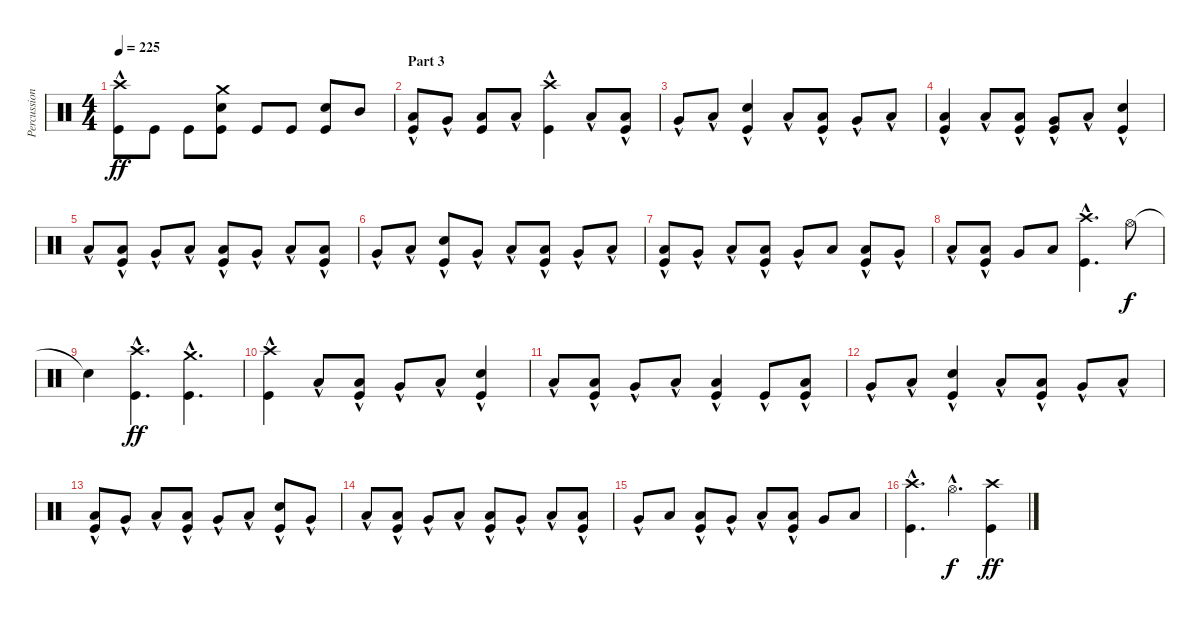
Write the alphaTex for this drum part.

\track ("Percussions" "Percussion") {instrument percussion}
\staff {score}
\articulation defaults
\ts (4 4)
\tempo 225
\clef neutral
\ks c
("Kick (hit)" "Crash high (hit)"{hac}).8{dy ff} "Kick (hit)".8 "Kick (hit)".8 ("Kick (hit)" "Electric Snare (hit)" "Crash medium (hit)").8 "Kick (hit)".8 "Kick (hit)".8 ("Kick (hit)" "Electric Snare (hit)").8 "Mid Tom (hit)".8 |
\section ("" "Part 3")
("Kick (hit)" "Low Tom (hit)"{hac}).8 "Very Low Tom (hit)"{hac}.8 ("Kick (hit)" "Low Floor Tom (hit)").8 "Low Floor Tom (hit)"{hac}.8 ("Kick (hit)"{hac} "Crash high (hit)").4 "Low Floor Tom (hit)"{hac}.8 ("Kick (hit)"{hac} "Low Tom (hit)"{hac}).8 |
"Very Low Tom (hit)"{hac}.8 "Low Floor Tom (hit)"{hac}.8 ("Kick (hit)"{hac} "Electric Snare (hit)"{hac}).4 "Low Floor Tom (hit)"{hac}.8 ("Kick (hit)"{hac} "Low Tom (hit)"{hac}).8 "Very Low Tom (hit)"{hac}.8 "Low Floor Tom (hit)"{hac}.8 |
("Kick (hit)"{hac} "Low Tom (hit)").4 "Low Floor Tom (hit)"{hac}.8 ("Kick (hit)"{hac} "Low Tom (hit)").8 ("Kick (hit)"{hac} "Very Low Tom (hit)"{hac}).8 "Low Floor Tom (hit)"{hac}.8 ("Kick (hit)"{hac} "Electric Snare (hit)"{hac}).4 |
"Low Floor Tom (hit)"{hac}.8 ("Kick (hit)"{hac} "Low Tom (hit)"{hac}).8 "Very Low Tom (hit)"{hac}.8 "Low Floor Tom (hit)"{hac}.8 ("Kick (hit)"{hac} "Low Tom (hit)").8 "Very Low Tom (hit)"{hac}.8 "Low Floor Tom (hit)"{hac}.8 ("Kick (hit)"{hac} "Low Tom (hit)"{hac}).8 |
"Very Low Tom (hit)"{hac}.8 "Low Floor Tom (hit)"{hac}.8 ("Kick (hit)"{hac} "Electric Snare (hit)"{hac}).8 "Very Low Tom (hit)"{hac}.8 "Low Floor Tom (hit)"{hac}.8 ("Kick (hit)"{hac} "Low Tom (hit)"{hac}).8 "Very Low Tom (hit)"{hac}.8 "Low Floor Tom (hit)"{hac}.8 |
("Kick (hit)"{hac} "Low Tom (hit)"{hac}).8 "Very Low Tom (hit)"{hac}.8 "Low Floor Tom (hit)"{hac}.8 ("Kick (hit)"{hac} "Low Tom (hit)"{hac}).8 "Very Low Tom (hit)"{hac}.8 "Low Floor Tom (hit)".8 ("Kick (hit)"{hac} "Low Floor Tom (hit)"{hac}).8 "Very Low Tom (hit)"{hac}.8 |
"Low Floor Tom (hit)"{hac}.8 ("Kick (hit)"{hac} "Low Tom (hit)"{hac}).8 "Very Low Tom (hit)".8 "Low Floor Tom (hit)".8 ("Kick (hit)"{hac} "Crash high (hit)"{hac}).4{d} "Hi-Hat (open)".8{dy f} |
"Snare (hit)"{t}.4 ("Kick (hit)"{hac} "Crash high (hit)"{hac}).4{d dy ff} ("Kick (hit)"{hac} "Crash medium (hit)"{hac}).4{d} |
("Kick (hit)"{hac} "Crash high (hit)").4 "Low Floor Tom (hit)"{hac}.8 ("Kick (hit)"{hac} "Low Tom (hit)"{hac}).8 "Very Low Tom (hit)"{hac}.8 "Low Floor Tom (hit)"{hac}.8 ("Kick (hit)"{hac} "Electric Snare (hit)"{hac}).4 |
"Low Floor Tom (hit)"{hac}.8 ("Kick (hit)"{hac} "Low Tom (hit)"{hac}).8 "Very Low Tom (hit)"{hac}.8 "Low Floor Tom (hit)"{hac}.8 ("Kick (hit)"{hac} "Low Tom (hit)").4 "Kick (hit)"{hac}.8 ("Kick (hit)"{hac} "Low Tom (hit)"{hac}).8 |
"Very Low Tom (hit)"{hac}.8 "Low Floor Tom (hit)"{hac}.8 ("Kick (hit)"{hac} "Electric Snare (hit)"{hac}).4 "Low Floor Tom (hit)"{hac}.8 ("Kick (hit)"{hac} "Low Tom (hit)"{hac}).8 "Very Low Tom (hit)"{hac}.8 "Low Floor Tom (hit)"{hac}.8 |
("Kick (hit)"{hac} "Low Tom (hit)"{hac}).8 "Very Low Tom (hit)"{hac}.8 "Low Floor Tom (hit)"{hac}.8 ("Kick (hit)"{hac} "Low Tom (hit)"{hac}).8 "Very Low Tom (hit)"{hac}.8 "Low Floor Tom (hit)"{hac}.8 ("Kick (hit)"{hac} "Electric Snare (hit)"{hac}).8 "Very Low Tom (hit)"{hac}.8 |
"Low Floor Tom (hit)"{hac}.8 ("Kick (hit)"{hac} "Low Tom (hit)"{hac}).8 "Very Low Tom (hit)"{hac}.8 "Low Floor Tom (hit)"{hac}.8 ("Kick (hit)"{hac} "Low Tom (hit)"{hac}).8 "Very Low Tom (hit)"{hac}.8 "Low Floor Tom (hit)"{hac}.8 ("Kick (hit)"{hac} "Low Tom (hit)"{hac}).8 |
"Very Low Tom (hit)"{hac}.8 "Low Floor Tom (hit)".8 ("Kick (hit)"{hac} "Low Floor Tom (hit)"{hac}).8 "Very Low Tom (hit)"{hac}.8 "Low Floor Tom (hit)"{hac}.8 ("Kick (hit)"{hac} "Low Tom (hit)"{hac}).8 "Very Low Tom (hit)".8 "Low Floor Tom (hit)".8 |
("Kick (hit)"{hac} "Crash high (hit)"{hac}).4{d} "Hi-Hat (open)"{hac}.4{d dy f} ("Kick (hit)" "Crash high (hit)").4{dy ff}
